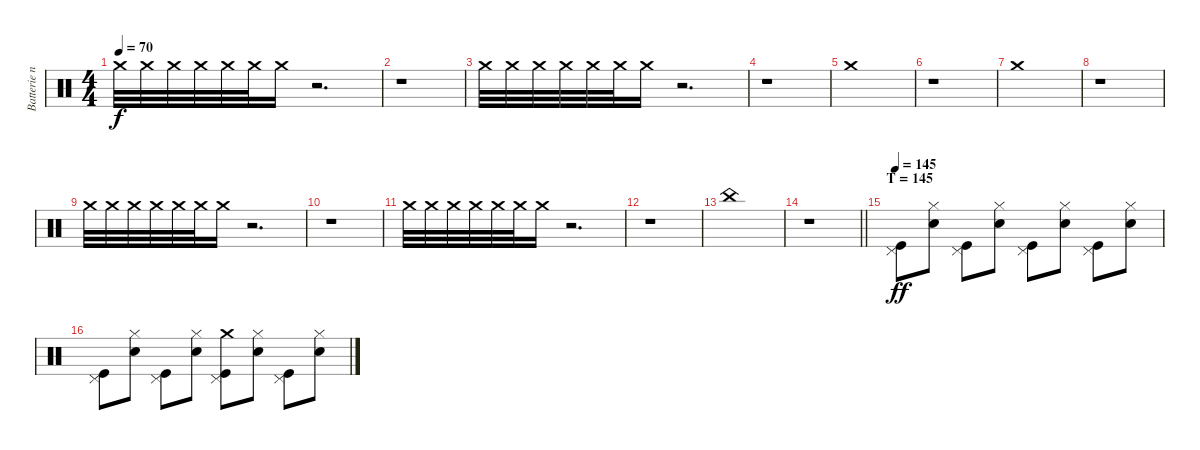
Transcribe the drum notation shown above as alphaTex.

\track ("Batterie n°3" "Batterie n") {instrument percussion}
\staff {score}
\articulation defaults
\ts (4 4)
\tempo 70
\clef neutral
\ks c "Crash medium (hit)".32{dy f volume 4} "Crash medium (hit)".32{volume 6} "Crash medium (hit)".32{volume 8} "Crash medium (hit)".32{volume 10} "Crash medium (hit)".32{volume 12} "Crash medium (hit)".32{volume 14} "Crash medium (hit)".16{volume 16}
r.2{d} |
r.1 |
"Crash medium (hit)".32{volume 4} "Crash medium (hit)".32{volume 6} "Crash medium (hit)".32{volume 8} "Crash medium (hit)".32{volume 10} "Crash medium (hit)".32{volume 12} "Crash medium (hit)".32{volume 14} "Crash medium (hit)".16{volume 16} r.2{d} |
r.1 |
"Crash medium (hit)".1 |
r.1 |
"Crash medium (hit)".1 |
r.1 |
"Crash medium (hit)".32{volume 4} "Crash medium (hit)".32{volume 6} "Crash medium (hit)".32{volume 8} "Crash medium (hit)".32{volume 10} "Crash medium (hit)".32{volume 12} "Crash medium (hit)".32{volume 14} "Crash medium (hit)".16{volume 16} r.2{d} |
r.1 |
"Crash medium (hit)".32{volume 4} "Crash medium (hit)".32{volume 6} "Crash medium (hit)".32{volume 8} "Crash medium (hit)".32{volume 10} "Crash medium (hit)".32{volume 12} "Crash medium (hit)".32{volume 14} "Crash medium (hit)".16{volume 16} r.2{d} |
r.1 |
"China (hit)".1 |
\barLineRight lightlight
r.1 |
\section ("" "T = 145")
\tempo 145
("Kick (hit)" "Pedal Hi-Hat (hit)").8{dy ff} ("Snare (hit) 2" "Hi-Hat (closed)").8 ("Kick (hit)" "Pedal Hi-Hat (hit)").8 ("Snare (hit) 2" "Hi-Hat (closed)").8 ("Kick (hit)" "Pedal Hi-Hat (hit)").8 ("Snare (hit) 2" "Hi-Hat (closed)").8 ("Kick (hit)" "Pedal Hi-Hat (hit)").8 ("Snare (hit) 2" "Hi-Hat (closed)").8 |
("Kick (hit)" "Pedal Hi-Hat (hit)").8 ("Snare (hit) 2" "Hi-Hat (closed)").8 ("Kick (hit)" "Pedal Hi-Hat (hit)").8 ("Snare (hit) 2" "Hi-Hat (closed)").8 ("Kick (hit)" "Pedal Hi-Hat (hit)" "Crash medium (hit)").8 ("Snare (hit) 2" "Hi-Hat (closed)").8 ("Kick (hit)" "Pedal Hi-Hat (hit)").8 ("Snare (hit) 2" "Hi-Hat (closed)").8
